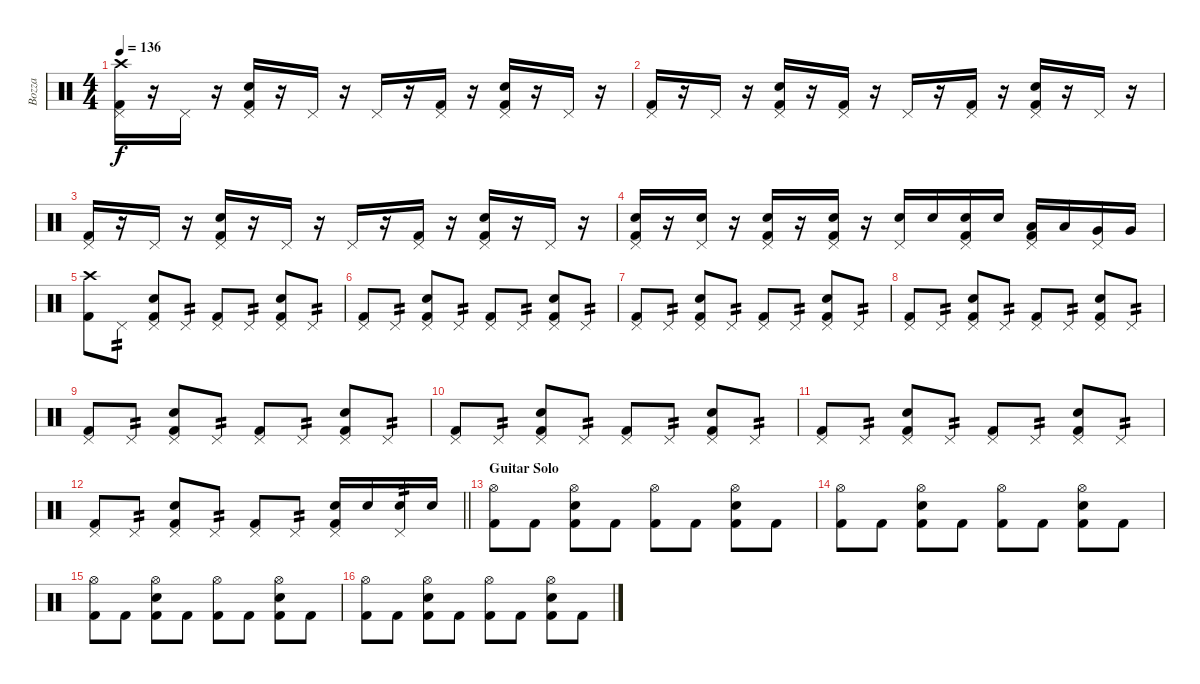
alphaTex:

\track ("Bozza" "Bozza") {instrument percussion}
\staff {score}
\articulation defaults
\ts (4 4)
\tempo 136
\clef neutral
\ks c
("Crash high (hit)" "Pedal Hi-Hat (hit)" "Kick (hit) 2").16{dy f} r.16 "Pedal Hi-Hat (hit)".16 r.16 ("Pedal Hi-Hat (hit)" "Snare (hit) 2" "Kick (hit) 2").16 r.16 "Pedal Hi-Hat (hit)".16 r.16 "Pedal Hi-Hat (hit)".16 r.16 ("Pedal Hi-Hat (hit)" "Kick (hit) 2").16 r.16 ("Pedal Hi-Hat (hit)" "Snare (hit) 2" "Kick (hit) 2").16 r.16 "Pedal Hi-Hat (hit)".16 r.16 |
("Pedal Hi-Hat (hit)" "Kick (hit) 2").16 r.16 "Pedal Hi-Hat (hit)".16 r.16 ("Pedal Hi-Hat (hit)" "Snare (hit) 2" "Kick (hit) 2").16 r.16 ("Pedal Hi-Hat (hit)" "Kick (hit) 2").16 r.16 "Pedal Hi-Hat (hit)".16 r.16 ("Pedal Hi-Hat (hit)" "Kick (hit) 2").16 r.16 ("Pedal Hi-Hat (hit)" "Snare (hit) 2" "Kick (hit) 2").16 r.16 "Pedal Hi-Hat (hit)".16 r.16 |
("Pedal Hi-Hat (hit)" "Kick (hit) 2").16 r.16 "Pedal Hi-Hat (hit)".16 r.16 ("Pedal Hi-Hat (hit)" "Snare (hit) 2" "Kick (hit) 2").16 r.16 "Pedal Hi-Hat (hit)".16 r.16 "Pedal Hi-Hat (hit)".16 r.16 ("Pedal Hi-Hat (hit)" "Kick (hit) 2").16 r.16 ("Pedal Hi-Hat (hit)" "Snare (hit) 2" "Kick (hit) 2").16 r.16 "Pedal Hi-Hat (hit)".16 r.16 |
("Pedal Hi-Hat (hit)" "Snare (hit) 2" "Kick (hit) 2").16 r.16 ("Pedal Hi-Hat (hit)" "Snare (hit) 2").16 r.16 ("Pedal Hi-Hat (hit)" "Snare (hit) 2" "Kick (hit) 2").16 r.16 ("Pedal Hi-Hat (hit)" "Snare (hit) 2" "Kick (hit) 2").16 r.16 ("Pedal Hi-Hat (hit)" "Snare (hit) 2").16 "Snare (hit) 2".16 ("Pedal Hi-Hat (hit)" "Snare (hit) 2" "Kick (hit) 2").16 "Snare (hit) 2".16 ("Pedal Hi-Hat (hit)" "Low Tom (hit)" "Kick (hit) 2").16 "Low Tom (hit)".16 ("Pedal Hi-Hat (hit)" "Very Low Tom (hit)").16 "Very Low Tom (hit)".16 |
("Crash high (hit)" "Kick (hit) 2").8 "Pedal Hi-Hat (hit)".8{tp 2} ("Pedal Hi-Hat (hit)" "Snare (hit) 2" "Kick (hit) 2").8 "Pedal Hi-Hat (hit)".8{tp 2} ("Pedal Hi-Hat (hit)" "Kick (hit) 2").8 "Pedal Hi-Hat (hit)".8{tp 2} ("Pedal Hi-Hat (hit)" "Snare (hit) 2" "Kick (hit) 2").8 "Pedal Hi-Hat (hit)".8{tp 2} |
("Pedal Hi-Hat (hit)" "Kick (hit) 2").8 "Pedal Hi-Hat (hit)".8{tp 2} ("Pedal Hi-Hat (hit)" "Snare (hit) 2" "Kick (hit) 2").8 "Pedal Hi-Hat (hit)".8{tp 2} ("Pedal Hi-Hat (hit)" "Kick (hit) 2").8 "Pedal Hi-Hat (hit)".8{tp 2} ("Pedal Hi-Hat (hit)" "Snare (hit) 2" "Kick (hit) 2").8 "Pedal Hi-Hat (hit)".8{tp 2} |
("Pedal Hi-Hat (hit)" "Kick (hit) 2").8 "Pedal Hi-Hat (hit)".8{tp 2} ("Pedal Hi-Hat (hit)" "Snare (hit) 2" "Kick (hit) 2").8 "Pedal Hi-Hat (hit)".8{tp 2} ("Pedal Hi-Hat (hit)" "Kick (hit) 2").8 "Pedal Hi-Hat (hit)".8{tp 2} ("Pedal Hi-Hat (hit)" "Snare (hit) 2" "Kick (hit) 2").8 "Pedal Hi-Hat (hit)".8{tp 2} |
("Pedal Hi-Hat (hit)" "Kick (hit) 2").8 "Pedal Hi-Hat (hit)".8{tp 2} ("Pedal Hi-Hat (hit)" "Snare (hit) 2" "Kick (hit) 2").8 "Pedal Hi-Hat (hit)".8{tp 2} ("Pedal Hi-Hat (hit)" "Kick (hit) 2").8 "Pedal Hi-Hat (hit)".8{tp 2} ("Pedal Hi-Hat (hit)" "Snare (hit) 2" "Kick (hit) 2").8 "Pedal Hi-Hat (hit)".8{tp 2} |
("Pedal Hi-Hat (hit)" "Kick (hit) 2").8 "Pedal Hi-Hat (hit)".8{tp 2} ("Pedal Hi-Hat (hit)" "Snare (hit) 2" "Kick (hit) 2").8 "Pedal Hi-Hat (hit)".8{tp 2} ("Pedal Hi-Hat (hit)" "Kick (hit) 2").8 "Pedal Hi-Hat (hit)".8{tp 2} ("Pedal Hi-Hat (hit)" "Snare (hit) 2" "Kick (hit) 2").8 "Pedal Hi-Hat (hit)".8{tp 2} |
("Pedal Hi-Hat (hit)" "Kick (hit) 2").8 "Pedal Hi-Hat (hit)".8{tp 2} ("Pedal Hi-Hat (hit)" "Snare (hit) 2" "Kick (hit) 2").8 "Pedal Hi-Hat (hit)".8{tp 2} ("Pedal Hi-Hat (hit)" "Kick (hit) 2").8 "Pedal Hi-Hat (hit)".8{tp 2} ("Pedal Hi-Hat (hit)" "Snare (hit) 2" "Kick (hit) 2").8 "Pedal Hi-Hat (hit)".8{tp 2} |
("Pedal Hi-Hat (hit)" "Kick (hit) 2").8 "Pedal Hi-Hat (hit)".8{tp 2} ("Pedal Hi-Hat (hit)" "Snare (hit) 2" "Kick (hit) 2").8 "Pedal Hi-Hat (hit)".8{tp 2} ("Pedal Hi-Hat (hit)" "Kick (hit) 2").8 "Pedal Hi-Hat (hit)".8{tp 2} ("Pedal Hi-Hat (hit)" "Snare (hit) 2" "Kick (hit) 2").8 "Pedal Hi-Hat (hit)".8{tp 2} |
\barLineRight lightlight
("Pedal Hi-Hat (hit)" "Kick (hit) 2").8 "Pedal Hi-Hat (hit)".8{tp 2} ("Pedal Hi-Hat (hit)" "Snare (hit) 2" "Kick (hit) 2").8 "Pedal Hi-Hat (hit)".8{tp 2} ("Pedal Hi-Hat (hit)" "Kick (hit) 2").8 "Pedal Hi-Hat (hit)".8{tp 2} ("Pedal Hi-Hat (hit)" "Snare (hit) 2" "Kick (hit) 2").16 "Snare (hit) 2".16 ("Pedal Hi-Hat (hit)" "Snare (hit) 2").16{tp 2} "Snare (hit) 2".16 |
\section ("" "Guitar Solo")
("Hi-Hat (open)" "Kick (hit) 2").8 "Kick (hit) 2".8 ("Hi-Hat (open)" "Snare (hit) 2" "Kick (hit) 2").8 "Kick (hit) 2".8 ("Hi-Hat (open)" "Kick (hit) 2").8 "Kick (hit) 2".8 ("Hi-Hat (open)" "Snare (hit) 2" "Kick (hit) 2").8 "Kick (hit) 2".8 |
("Hi-Hat (open)" "Kick (hit) 2").8 "Kick (hit) 2".8 ("Hi-Hat (open)" "Snare (hit) 2" "Kick (hit) 2").8 "Kick (hit) 2".8 ("Hi-Hat (open)" "Kick (hit) 2").8 "Kick (hit) 2".8 ("Hi-Hat (open)" "Snare (hit) 2" "Kick (hit) 2").8 "Kick (hit) 2".8 |
("Hi-Hat (open)" "Kick (hit) 2").8 "Kick (hit) 2".8 ("Hi-Hat (open)" "Snare (hit) 2" "Kick (hit) 2").8 "Kick (hit) 2".8 ("Hi-Hat (open)" "Kick (hit) 2").8 "Kick (hit) 2".8 ("Hi-Hat (open)" "Snare (hit) 2" "Kick (hit) 2").8 "Kick (hit) 2".8 |
("Hi-Hat (open)" "Kick (hit) 2").8 "Kick (hit) 2".8 ("Hi-Hat (open)" "Snare (hit) 2" "Kick (hit) 2").8 "Kick (hit) 2".8 ("Hi-Hat (open)" "Kick (hit) 2").8 "Kick (hit) 2".8 ("Hi-Hat (open)" "Snare (hit) 2" "Kick (hit) 2").8 "Kick (hit) 2".8
